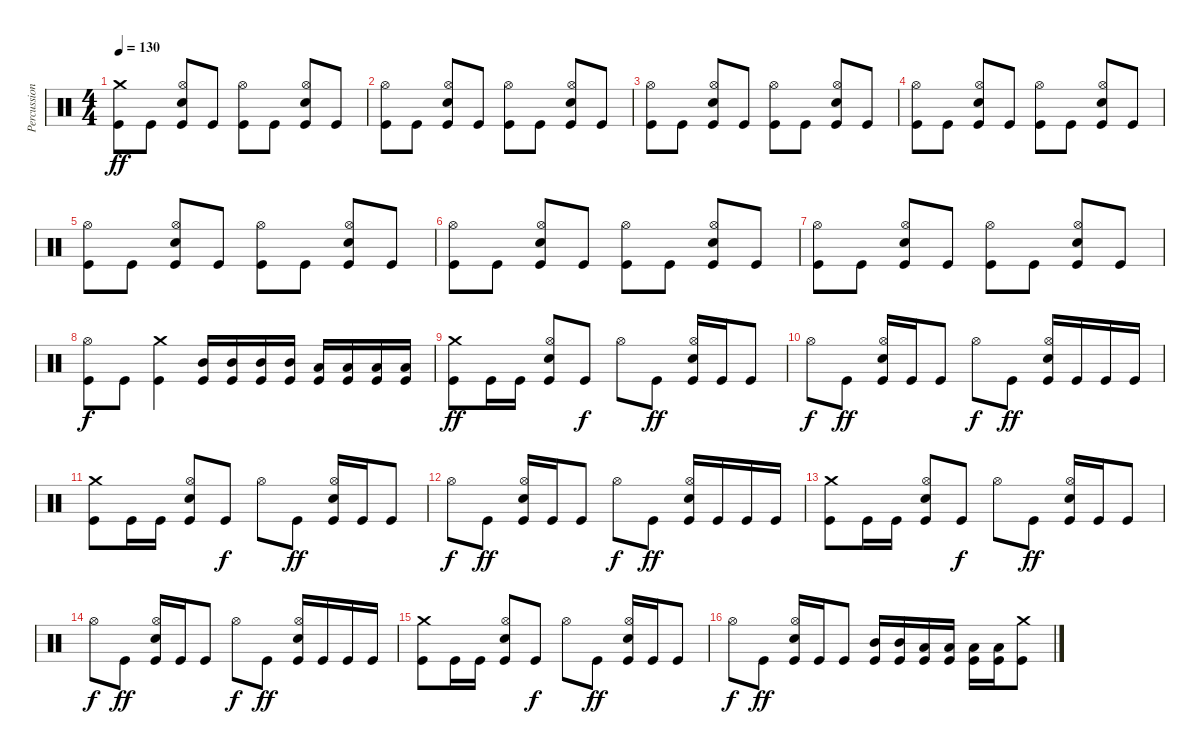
\track ("Percussion" "Percussion") {instrument percussion}
\staff {score}
\articulation defaults
\ts (4 4)
\tempo 130
\clef neutral
\ks c
("Crash medium (hit)" "Kick (hit)").8{dy ff} "Kick (hit)".8 ("Hi-Hat (open)" "Snare (hit) 2" "Kick (hit)").8 "Kick (hit)".8 ("Hi-Hat (open)" "Kick (hit)").8 "Kick (hit)".8 ("Hi-Hat (open)" "Snare (hit) 2" "Kick (hit)").8 "Kick (hit)".8 |
("Hi-Hat (open)" "Kick (hit)").8 "Kick (hit)".8 ("Hi-Hat (open)" "Snare (hit) 2" "Kick (hit)").8 "Kick (hit)".8 ("Hi-Hat (open)" "Kick (hit)").8 "Kick (hit)".8 ("Hi-Hat (open)" "Snare (hit) 2" "Kick (hit)").8 "Kick (hit)".8 |
("Hi-Hat (open)" "Kick (hit)").8 "Kick (hit)".8 ("Hi-Hat (open)" "Snare (hit) 2" "Kick (hit)").8 "Kick (hit)".8 ("Hi-Hat (open)" "Kick (hit)").8 "Kick (hit)".8 ("Hi-Hat (open)" "Snare (hit) 2" "Kick (hit)").8 "Kick (hit)".8 |
("Hi-Hat (open)" "Kick (hit)").8 "Kick (hit)".8 ("Hi-Hat (open)" "Snare (hit) 2" "Kick (hit)").8 "Kick (hit)".8 ("Hi-Hat (open)" "Kick (hit)").8 "Kick (hit)".8 ("Hi-Hat (open)" "Snare (hit) 2" "Kick (hit)").8 "Kick (hit)".8 |
("Hi-Hat (open)" "Kick (hit)").8 "Kick (hit)".8 ("Hi-Hat (open)" "Snare (hit) 2" "Kick (hit)").8 "Kick (hit)".8 ("Hi-Hat (open)" "Kick (hit)").8 "Kick (hit)".8 ("Hi-Hat (open)" "Snare (hit) 2" "Kick (hit)").8 "Kick (hit)".8 |
("Hi-Hat (open)" "Kick (hit)").8 "Kick (hit)".8 ("Hi-Hat (open)" "Snare (hit) 2" "Kick (hit)").8 "Kick (hit)".8 ("Hi-Hat (open)" "Kick (hit)").8 "Kick (hit)".8 ("Hi-Hat (open)" "Snare (hit) 2" "Kick (hit)").8 "Kick (hit)".8 |
("Hi-Hat (open)" "Kick (hit)").8 "Kick (hit)".8 ("Hi-Hat (open)" "Snare (hit) 2" "Kick (hit)").8 "Kick (hit)".8 ("Hi-Hat (open)" "Kick (hit)").8 "Kick (hit)".8 ("Hi-Hat (open)" "Snare (hit) 2" "Kick (hit)").8 "Kick (hit)".8 |
("Hi-Hat (open)" "Kick (hit)").8{dy f} "Kick (hit)".8 ("Crash medium (hit)" "Kick (hit)").4 ("Mid Tom (hit)" "Kick (hit)").16 ("Mid Tom (hit)" "Kick (hit)").16 ("Mid Tom (hit)" "Kick (hit)").16 ("Mid Tom (hit)" "Kick (hit)").16 ("Low Tom (hit)" "Kick (hit)").16 ("Low Tom (hit)" "Kick (hit)").16 ("Low Tom (hit)" "Kick (hit)").16 ("Low Tom (hit)" "Kick (hit)").16 |
("Crash medium (hit)" "Kick (hit)").8{dy ff} "Kick (hit)".16 "Kick (hit)".16 ("Hi-Hat (open)" "Snare (hit) 2" "Kick (hit)").8 "Kick (hit)".8{dy f} "Hi-Hat (open)".8 "Kick (hit)".8{dy ff} ("Hi-Hat (open)" "Snare (hit) 2" "Kick (hit)").16 "Kick (hit)".16 "Kick (hit)".8 |
"Hi-Hat (open)".8{dy f} "Kick (hit)".8{dy ff} ("Hi-Hat (open)" "Snare (hit) 2" "Kick (hit)").16 "Kick (hit)".16 "Kick (hit)".8 "Hi-Hat (open)".8{dy f} "Kick (hit)".8{dy ff} ("Hi-Hat (open)" "Snare (hit) 2" "Kick (hit)").16 "Kick (hit)".16 "Kick (hit)".16 "Kick (hit)".16 |
("Crash medium (hit)" "Kick (hit)").8 "Kick (hit)".16 "Kick (hit)".16 ("Hi-Hat (open)" "Snare (hit) 2" "Kick (hit)").8 "Kick (hit)".8{dy f} "Hi-Hat (open)".8 "Kick (hit)".8{dy ff} ("Hi-Hat (open)" "Snare (hit) 2" "Kick (hit)").16 "Kick (hit)".16 "Kick (hit)".8 |
"Hi-Hat (open)".8{dy f} "Kick (hit)".8{dy ff} ("Hi-Hat (open)" "Snare (hit) 2" "Kick (hit)").16 "Kick (hit)".16 "Kick (hit)".8 "Hi-Hat (open)".8{dy f} "Kick (hit)".8{dy ff} ("Hi-Hat (open)" "Snare (hit) 2" "Kick (hit)").16 "Kick (hit)".16 "Kick (hit)".16 "Kick (hit)".16 |
("Crash medium (hit)" "Kick (hit)").8 "Kick (hit)".16 "Kick (hit)".16 ("Hi-Hat (open)" "Snare (hit) 2" "Kick (hit)").8 "Kick (hit)".8{dy f} "Hi-Hat (open)".8 "Kick (hit)".8{dy ff} ("Hi-Hat (open)" "Snare (hit) 2" "Kick (hit)").16 "Kick (hit)".16 "Kick (hit)".8 |
"Hi-Hat (open)".8{dy f} "Kick (hit)".8{dy ff} ("Hi-Hat (open)" "Snare (hit) 2" "Kick (hit)").16 "Kick (hit)".16 "Kick (hit)".8 "Hi-Hat (open)".8{dy f} "Kick (hit)".8{dy ff} ("Hi-Hat (open)" "Snare (hit) 2" "Kick (hit)").16 "Kick (hit)".16 "Kick (hit)".16 "Kick (hit)".16 |
("Crash medium (hit)" "Kick (hit)").8 "Kick (hit)".16 "Kick (hit)".16 ("Hi-Hat (open)" "Snare (hit) 2" "Kick (hit)").8 "Kick (hit)".8{dy f} "Hi-Hat (open)".8 "Kick (hit)".8{dy ff} ("Hi-Hat (open)" "Snare (hit) 2" "Kick (hit)").16 "Kick (hit)".16 "Kick (hit)".8 |
"Hi-Hat (open)".8{dy f} "Kick (hit)".8{dy ff} ("Hi-Hat (open)" "Snare (hit) 2" "Kick (hit)").16 "Kick (hit)".16 "Kick (hit)".8 ("Mid Tom (hit)" "Kick (hit)").16 ("Mid Tom (hit)" "Kick (hit)").16 ("Low Tom (hit)" "Kick (hit)").16 ("Low Tom (hit)" "Kick (hit)").16 ("Low Tom (hit)" "Kick (hit)").16 ("Low Tom (hit)" "Kick (hit)").16 ("Crash medium (hit)" "Kick (hit)").8
